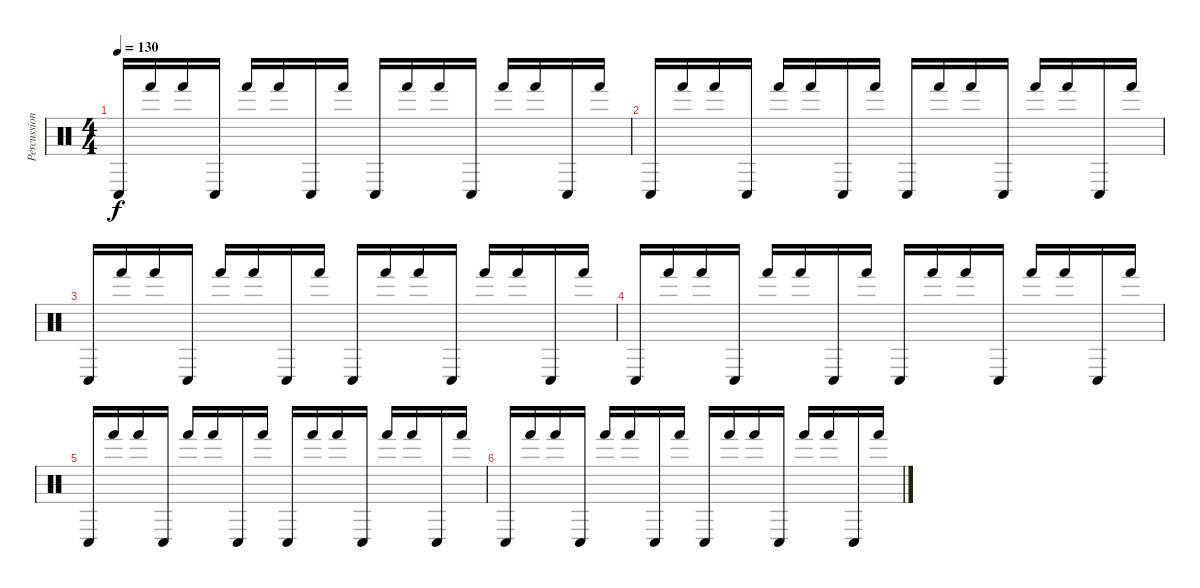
\track ("Percussion" "Percussion") {instrument percussion}
\staff {score}
\articulation defaults
\ts (4 4)
\tempo 130
\clef neutral
\ks c "Conga low (hit)".16{dy f} "Hand (hit)".16 "Hand (hit)".16 "Conga low (hit)".16 "Hand (hit)".16 "Hand (hit)".16 "Conga low (hit)".16 "Hand (hit)".16 "Conga low (hit)".16 "Hand (hit)".16 "Hand (hit)".16 "Conga low (hit)".16 "Hand (hit)".16 "Hand (hit)".16 "Conga low (hit)".16 "Hand (hit)".16
|
"Conga low (hit)".16 "Hand (hit)".16 "Hand (hit)".16 "Conga low (hit)".16 "Hand (hit)".16 "Hand (hit)".16 "Conga low (hit)".16 "Hand (hit)".16 "Conga low (hit)".16 "Hand (hit)".16 "Hand (hit)".16 "Conga low (hit)".16 "Hand (hit)".16 "Hand (hit)".16 "Conga low (hit)".16 "Hand (hit)".16 |
"Conga low (hit)".16 "Hand (hit)".16 "Hand (hit)".16 "Conga low (hit)".16 "Hand (hit)".16 "Hand (hit)".16 "Conga low (hit)".16 "Hand (hit)".16 "Conga low (hit)".16 "Hand (hit)".16 "Hand (hit)".16 "Conga low (hit)".16 "Hand (hit)".16 "Hand (hit)".16 "Conga low (hit)".16 "Hand (hit)".16 |
"Conga low (hit)".16 "Hand (hit)".16 "Hand (hit)".16 "Conga low (hit)".16 "Hand (hit)".16 "Hand (hit)".16 "Conga low (hit)".16 "Hand (hit)".16 "Conga low (hit)".16 "Hand (hit)".16 "Hand (hit)".16 "Conga low (hit)".16 "Hand (hit)".16 "Hand (hit)".16 "Conga low (hit)".16 "Hand (hit)".16 |
"Conga low (hit)".16 "Hand (hit)".16 "Hand (hit)".16 "Conga low (hit)".16 "Hand (hit)".16 "Hand (hit)".16 "Conga low (hit)".16 "Hand (hit)".16 "Conga low (hit)".16 "Hand (hit)".16 "Hand (hit)".16 "Conga low (hit)".16 "Hand (hit)".16 "Hand (hit)".16 "Conga low (hit)".16 "Hand (hit)".16 |
"Conga low (hit)".16 "Hand (hit)".16 "Hand (hit)".16 "Conga low (hit)".16 "Hand (hit)".16 "Hand (hit)".16 "Conga low (hit)".16 "Hand (hit)".16 "Conga low (hit)".16 "Hand (hit)".16 "Hand (hit)".16 "Conga low (hit)".16 "Hand (hit)".16 "Hand (hit)".16 "Conga low (hit)".16 "Hand (hit)".16
